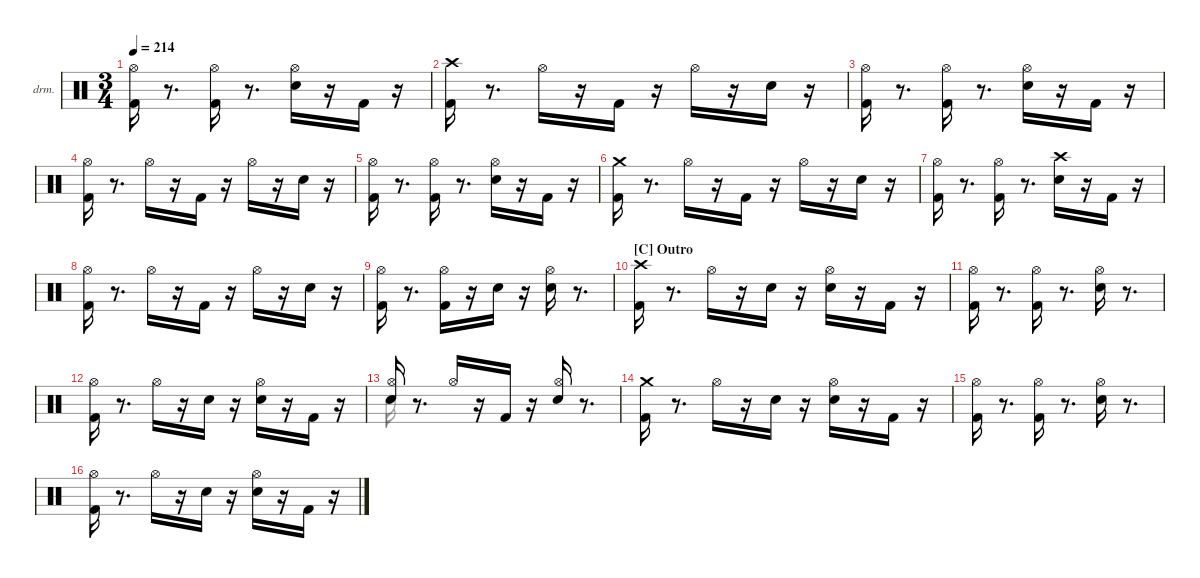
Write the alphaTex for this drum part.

\hideDynamics
\bracketExtendMode nobrackets
\firstSystemTrackNameOrientation horizontal
\track ("EZdrummer 3" "drm.") {instrument percussion}
\staff {score}
\articulation defaults
\voice
\ts (3 4)
\tempo 214
\clef neutral
\ks aminor
("Kick (hit) 2" "Hi-Hat (open)"{acc #}).16{dy fff} r.8{d} ("Kick (hit) 2" "Hi-Hat (open)"{acc #}).16{dy mf} r.8{d} ("Snare (hit) 2" "Hi-Hat (open)"{acc #}).16{dy f} r.16 "Kick (hit) 2".16{dy mp} r.16 |
("Kick (hit) 2" "Crash high (hit)"{acc #}).16{dy fff} r.8{d} "Hi-Hat (open)"{acc #}.16{dy mf} r.16 "Kick (hit) 2".16{dy ff} r.16 "Hi-Hat (open)"{acc #}.16{dy f} r.16 "Snare (hit) 2".16{dy ff} r.16 |
("Kick (hit) 2" "Hi-Hat (open)"{acc #}).16{dy fff} r.8{d} ("Kick (hit) 2" "Hi-Hat (open)"{acc #}).16{dy f} r.8{d} ("Snare (hit) 2" "Hi-Hat (open)"{acc #}).16 r.16 "Kick (hit) 2".16{dy mp} r.16 |
("Kick (hit) 2" "Hi-Hat (open)"{acc #}).16{dy ff} r.8{d} "Hi-Hat (open)"{acc #}.16{dy mf} r.16 "Kick (hit) 2".16{dy ff} r.16 "Hi-Hat (open)"{acc #}.16{dy f} r.16 "Snare (hit) 2".16{dy ff} r.16 |
("Kick (hit) 2" "Hi-Hat (open)"{acc #}).16{dy fff} r.8{d} ("Kick (hit) 2" "Hi-Hat (open)"{acc #}).16{dy ff} r.8{d} ("Snare (hit) 2" "Hi-Hat (open)"{acc #}).16{dy f} r.16 "Kick (hit) 2".16{dy mp} r.16 |
("Kick (hit) 2" "Crash medium (hit)").16{dy ff} r.8{d} "Hi-Hat (open)"{acc #}.16{dy mf} r.16 "Kick (hit) 2".16{dy f} r.16 "Hi-Hat (open)"{acc #}.16 r.16 "Snare (hit) 2".16{dy ff} r.16 |
("Kick (hit) 2" "Hi-Hat (open)"{acc #}).16{dy fff} r.8{d} ("Kick (hit) 2" "Hi-Hat (open)"{acc #}).16{dy f} r.8{d} ("Snare (hit) 2" "Crash high (hit)"{acc #}).16{dy ff} r.16 "Kick (hit) 2".16{dy mf} r.16 |
("Kick (hit) 2" "Hi-Hat (open)"{acc #}).16{dy fff} r.8{d} "Hi-Hat (open)"{acc #}.16{dy mf} r.16 "Kick (hit) 2".16{dy ff} r.16 "Hi-Hat (open)"{acc #}.16 r.16 "Snare (hit) 2".16 r.16 |
("Kick (hit) 2" "Hi-Hat (open)"{acc #}).16 r.8{d} ("Kick (hit) 2" "Hi-Hat (open)"{acc #}).16 r.16 "Snare (hit) 2".16{dy f} r.16 ("Snare (hit) 2" "Hi-Hat (open)"{acc #}).16{dy fff} r.8{d} |
\section ("C" "Outro")
("Kick (hit) 2" "Crash high (hit)"{acc #}).16 r.8{d} "Hi-Hat (open)"{acc #}.16{dy mf} r.16 "Snare (hit) 2".16{dy f} r.16 ("Snare (hit) 2" "Hi-Hat (open)"{acc #}).16{dy p} r.16 "Kick (hit) 2".16{dy mp} r.16 |
("Kick (hit) 2" "Hi-Hat (open)"{acc #}).16{dy f} r.8{d} ("Kick (hit) 2" "Hi-Hat (open)"{acc #}).16{dy mf} r.8{d} ("Snare (hit) 2" "Hi-Hat (open)"{acc #}).16{dy mp} r.8{d} |
("Kick (hit) 2" "Hi-Hat (open)"{acc #}).16{dy mf} r.8{d} "Hi-Hat (open)"{acc #}.16{dy mp} r.16 "Snare (hit) 2".16{dy f} r.16 ("Snare (hit) 2" "Hi-Hat (open)"{acc #}).16 r.16 "Kick (hit) 2".16{dy mf} r.16 |
("Snare (hit) 2" "Hi-Hat (open)"{acc #}).16{dy pp} r.8{d} "Hi-Hat (open)"{acc #}.16{dy f} r.16 "Kick (hit) 2".16{dy mp} r.16 ("Snare (hit) 2" "Hi-Hat (open)"{acc #}).16{dy ff} r.8{d} |
("Kick (hit) 2" "Crash medium (hit)").16 r.8{d} "Hi-Hat (open)"{acc #}.16{dy mf} r.16 "Snare (hit) 2".16{dy f} r.16 ("Snare (hit) 2" "Hi-Hat (open)"{acc #}).16{dy p} r.16 "Kick (hit) 2".16{dy mp} r.16 |
("Kick (hit) 2" "Hi-Hat (open)"{acc #}).16{dy f} r.8{d} ("Kick (hit) 2" "Hi-Hat (open)"{acc #}).16{dy mf} r.8{d} ("Snare (hit) 2" "Hi-Hat (open)"{acc #}).16{dy f} r.8{d} |
("Kick (hit) 2" "Hi-Hat (open)"{acc #}).16{dy mf} r.8{d} "Hi-Hat (open)"{acc #}.16{dy mp} r.16 "Snare (hit) 2".16{dy f} r.16 ("Snare (hit) 2" "Hi-Hat (open)"{acc #}).16{dy p} r.16 "Kick (hit) 2".16{dy mf} r.16
\voice
\clef neutral
\ottava regular
\simile none
\ks aminor
|
|
|
|
|
|
|
|
|
|
|
|
"Snare (hit) 2".16 |
|
|
